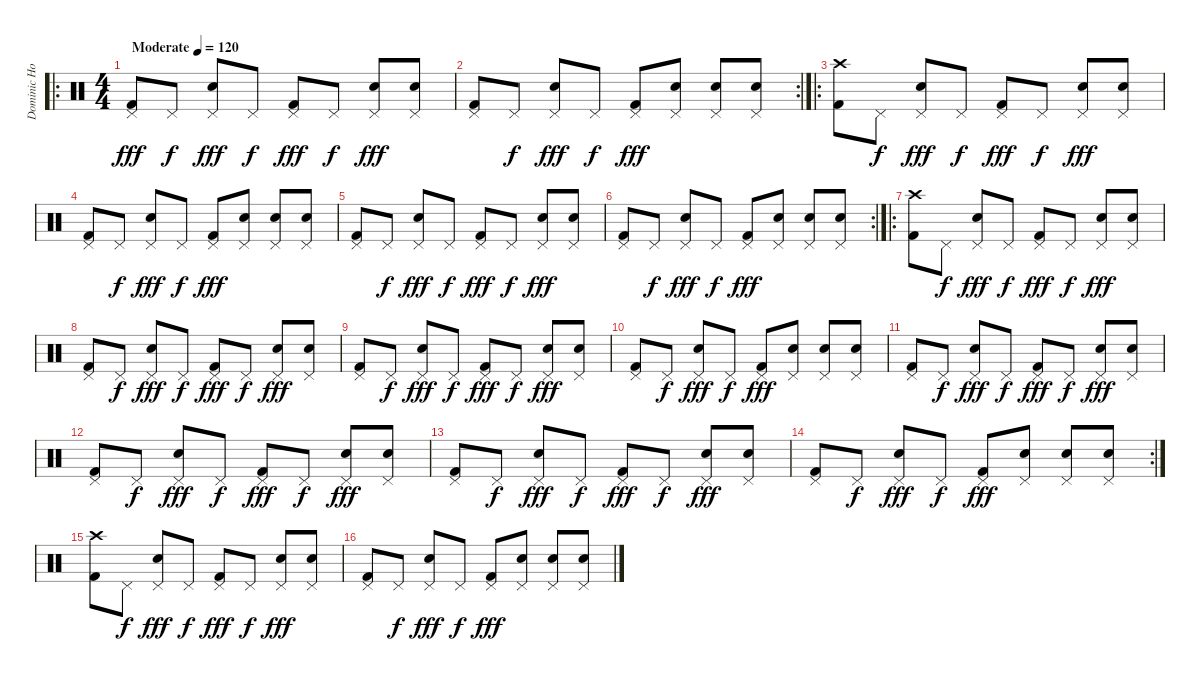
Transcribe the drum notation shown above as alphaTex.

\track ("Dominic Howard" "Dominic Ho") {instrument percussion}
\staff {score}
\articulation defaults
\ro
\ts (4 4)
\tempo (120 "Moderate")
\clef neutral
\ks c
("Pedal Hi-Hat (hit)" "Kick (hit) 2").8{dy fff} "Pedal Hi-Hat (hit)".8{dy f} ("Pedal Hi-Hat (hit)" "Snare (hit) 2").8{dy fff} "Pedal Hi-Hat (hit)".8{dy f} ("Pedal Hi-Hat (hit)" "Kick (hit) 2").8{dy fff} "Pedal Hi-Hat (hit)".8{dy f} ("Pedal Hi-Hat (hit)" "Snare (hit) 2").8{dy fff} ("Pedal Hi-Hat (hit)" "Snare (hit) 2").8 |
\rc 2
("Pedal Hi-Hat (hit)" "Kick (hit) 2").8 "Pedal Hi-Hat (hit)".8{dy f} ("Pedal Hi-Hat (hit)" "Snare (hit) 2").8{dy fff} "Pedal Hi-Hat (hit)".8{dy f} ("Pedal Hi-Hat (hit)" "Kick (hit) 2").8{dy fff} ("Pedal Hi-Hat (hit)" "Snare (hit) 2").8 ("Pedal Hi-Hat (hit)" "Snare (hit) 2").8 ("Pedal Hi-Hat (hit)" "Snare (hit) 2").8 |
\ro
("Crash high (hit)" "Kick (hit) 2").8 "Pedal Hi-Hat (hit)".8{dy f} ("Pedal Hi-Hat (hit)" "Snare (hit) 2").8{dy fff} "Pedal Hi-Hat (hit)".8{dy f} ("Pedal Hi-Hat (hit)" "Kick (hit) 2").8{dy fff} "Pedal Hi-Hat (hit)".8{dy f} ("Pedal Hi-Hat (hit)" "Snare (hit) 2").8{dy fff} ("Pedal Hi-Hat (hit)" "Snare (hit) 2").8 |
("Pedal Hi-Hat (hit)" "Kick (hit) 2").8 "Pedal Hi-Hat (hit)".8{dy f} ("Pedal Hi-Hat (hit)" "Snare (hit) 2").8{dy fff} "Pedal Hi-Hat (hit)".8{dy f} ("Pedal Hi-Hat (hit)" "Kick (hit) 2").8{dy fff} ("Pedal Hi-Hat (hit)" "Snare (hit) 2").8 ("Pedal Hi-Hat (hit)" "Snare (hit) 2").8 ("Pedal Hi-Hat (hit)" "Snare (hit) 2").8 |
("Pedal Hi-Hat (hit)" "Kick (hit) 2").8 "Pedal Hi-Hat (hit)".8{dy f} ("Pedal Hi-Hat (hit)" "Snare (hit) 2").8{dy fff} "Pedal Hi-Hat (hit)".8{dy f} ("Pedal Hi-Hat (hit)" "Kick (hit) 2").8{dy fff} "Pedal Hi-Hat (hit)".8{dy f} ("Pedal Hi-Hat (hit)" "Snare (hit) 2").8{dy fff} ("Pedal Hi-Hat (hit)" "Snare (hit) 2").8 |
\rc 2
("Pedal Hi-Hat (hit)" "Kick (hit) 2").8 "Pedal Hi-Hat (hit)".8{dy f} ("Pedal Hi-Hat (hit)" "Snare (hit) 2").8{dy fff} "Pedal Hi-Hat (hit)".8{dy f} ("Pedal Hi-Hat (hit)" "Kick (hit) 2").8{dy fff} ("Pedal Hi-Hat (hit)" "Snare (hit) 2").8 ("Pedal Hi-Hat (hit)" "Snare (hit) 2").8 ("Pedal Hi-Hat (hit)" "Snare (hit) 2").8 |
\ro
("Crash high (hit)" "Kick (hit) 2").8 "Pedal Hi-Hat (hit)".8{dy f} ("Pedal Hi-Hat (hit)" "Snare (hit) 2").8{dy fff} "Pedal Hi-Hat (hit)".8{dy f} ("Pedal Hi-Hat (hit)" "Kick (hit) 2").8{dy fff} "Pedal Hi-Hat (hit)".8{dy f} ("Pedal Hi-Hat (hit)" "Snare (hit) 2").8{dy fff} ("Pedal Hi-Hat (hit)" "Snare (hit) 2").8 |
("Pedal Hi-Hat (hit)" "Kick (hit) 2").8 "Pedal Hi-Hat (hit)".8{dy f} ("Pedal Hi-Hat (hit)" "Snare (hit) 2").8{dy fff} "Pedal Hi-Hat (hit)".8{dy f} ("Pedal Hi-Hat (hit)" "Kick (hit) 2").8{dy fff} "Pedal Hi-Hat (hit)".8{dy f} ("Pedal Hi-Hat (hit)" "Snare (hit) 2").8{dy fff} ("Pedal Hi-Hat (hit)" "Snare (hit) 2").8 |
("Pedal Hi-Hat (hit)" "Kick (hit) 2").8 "Pedal Hi-Hat (hit)".8{dy f} ("Pedal Hi-Hat (hit)" "Snare (hit) 2").8{dy fff} "Pedal Hi-Hat (hit)".8{dy f} ("Pedal Hi-Hat (hit)" "Kick (hit) 2").8{dy fff} "Pedal Hi-Hat (hit)".8{dy f} ("Pedal Hi-Hat (hit)" "Snare (hit) 2").8{dy fff} ("Pedal Hi-Hat (hit)" "Snare (hit) 2").8 |
("Pedal Hi-Hat (hit)" "Kick (hit) 2").8 "Pedal Hi-Hat (hit)".8{dy f} ("Pedal Hi-Hat (hit)" "Snare (hit) 2").8{dy fff} "Pedal Hi-Hat (hit)".8{dy f} ("Pedal Hi-Hat (hit)" "Kick (hit) 2").8{dy fff} ("Pedal Hi-Hat (hit)" "Snare (hit) 2").8 ("Pedal Hi-Hat (hit)" "Snare (hit) 2").8 ("Pedal Hi-Hat (hit)" "Snare (hit) 2").8 |
("Pedal Hi-Hat (hit)" "Kick (hit) 2").8 "Pedal Hi-Hat (hit)".8{dy f} ("Pedal Hi-Hat (hit)" "Snare (hit) 2").8{dy fff} "Pedal Hi-Hat (hit)".8{dy f} ("Pedal Hi-Hat (hit)" "Kick (hit) 2").8{dy fff} "Pedal Hi-Hat (hit)".8{dy f} ("Pedal Hi-Hat (hit)" "Snare (hit) 2").8{dy fff} ("Pedal Hi-Hat (hit)" "Snare (hit) 2").8 |
("Pedal Hi-Hat (hit)" "Kick (hit) 2").8 "Pedal Hi-Hat (hit)".8{dy f} ("Pedal Hi-Hat (hit)" "Snare (hit) 2").8{dy fff} "Pedal Hi-Hat (hit)".8{dy f} ("Pedal Hi-Hat (hit)" "Kick (hit) 2").8{dy fff} "Pedal Hi-Hat (hit)".8{dy f} ("Pedal Hi-Hat (hit)" "Snare (hit) 2").8{dy fff} ("Pedal Hi-Hat (hit)" "Snare (hit) 2").8 |
("Pedal Hi-Hat (hit)" "Kick (hit) 2").8 "Pedal Hi-Hat (hit)".8{dy f} ("Pedal Hi-Hat (hit)" "Snare (hit) 2").8{dy fff} "Pedal Hi-Hat (hit)".8{dy f} ("Pedal Hi-Hat (hit)" "Kick (hit) 2").8{dy fff} "Pedal Hi-Hat (hit)".8{dy f} ("Pedal Hi-Hat (hit)" "Snare (hit) 2").8{dy fff} ("Pedal Hi-Hat (hit)" "Snare (hit) 2").8 |
\rc 2
("Pedal Hi-Hat (hit)" "Kick (hit) 2").8 "Pedal Hi-Hat (hit)".8{dy f} ("Pedal Hi-Hat (hit)" "Snare (hit) 2").8{dy fff} "Pedal Hi-Hat (hit)".8{dy f} ("Pedal Hi-Hat (hit)" "Kick (hit) 2").8{dy fff} ("Pedal Hi-Hat (hit)" "Snare (hit) 2").8 ("Pedal Hi-Hat (hit)" "Snare (hit) 2").8 ("Pedal Hi-Hat (hit)" "Snare (hit) 2").8 |
("Crash high (hit)" "Kick (hit) 2").8 "Pedal Hi-Hat (hit)".8{dy f} ("Pedal Hi-Hat (hit)" "Snare (hit) 2").8{dy fff} "Pedal Hi-Hat (hit)".8{dy f} ("Pedal Hi-Hat (hit)" "Kick (hit) 2").8{dy fff} "Pedal Hi-Hat (hit)".8{dy f} ("Pedal Hi-Hat (hit)" "Snare (hit) 2").8{dy fff} ("Pedal Hi-Hat (hit)" "Snare (hit) 2").8 |
("Pedal Hi-Hat (hit)" "Kick (hit) 2").8 "Pedal Hi-Hat (hit)".8{dy f} ("Pedal Hi-Hat (hit)" "Snare (hit) 2").8{dy fff} "Pedal Hi-Hat (hit)".8{dy f} ("Pedal Hi-Hat (hit)" "Kick (hit) 2").8{dy fff} ("Pedal Hi-Hat (hit)" "Snare (hit) 2").8 ("Pedal Hi-Hat (hit)" "Snare (hit) 2").8 ("Pedal Hi-Hat (hit)" "Snare (hit) 2").8
